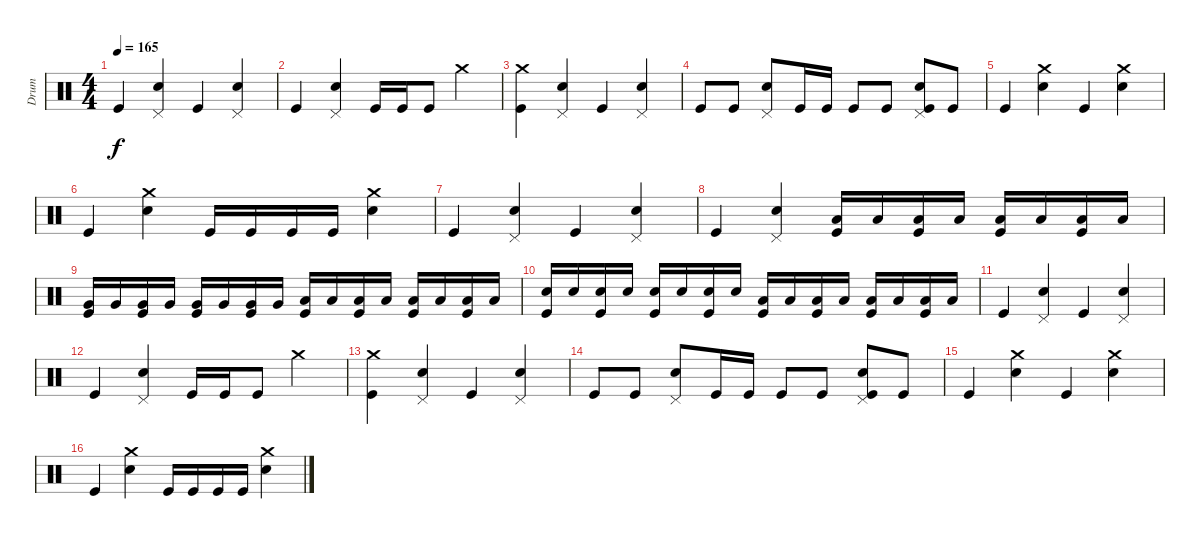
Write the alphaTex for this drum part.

\track ("Drum" "Drum") {instrument percussion}
\staff {score}
\articulation defaults
\ts (4 4)
\tempo 165
\clef neutral
\ks c "Kick (hit)".4{dy f}
("Pedal Hi-Hat (hit)" "Electric Snare (hit)").4 "Kick (hit)".4 ("Pedal Hi-Hat (hit)" "Electric Snare (hit)").4 |
"Kick (hit)".4 ("Pedal Hi-Hat (hit)" "Electric Snare (hit)").4 "Kick (hit)".16 "Kick (hit)".16 "Kick (hit)".8 "Crash medium (hit)".4 |
("Crash medium (hit)" "Kick (hit)").4 ("Pedal Hi-Hat (hit)" "Electric Snare (hit)").4 "Kick (hit)".4 ("Pedal Hi-Hat (hit)" "Electric Snare (hit)").4 |
"Kick (hit)".8 "Kick (hit)".8 ("Pedal Hi-Hat (hit)" "Electric Snare (hit)").8 "Kick (hit)".16 "Kick (hit)".16 "Kick (hit)".8 "Kick (hit)".8 ("Pedal Hi-Hat (hit)" "Electric Snare (hit)" "Kick (hit)").8 "Kick (hit)".8 |
"Kick (hit)".4 ("Crash medium (hit)" "Electric Snare (hit)").4 "Kick (hit)".4 ("Crash medium (hit)" "Electric Snare (hit)").4 |
"Kick (hit)".4 ("Crash medium (hit)" "Electric Snare (hit)").4 "Kick (hit)".16 "Kick (hit)".16 "Kick (hit)".16 "Kick (hit)".16 ("Electric Snare (hit)" "Crash medium (hit)").4 |
"Kick (hit)".4 ("Pedal Hi-Hat (hit)" "Electric Snare (hit)").4 "Kick (hit)".4 ("Pedal Hi-Hat (hit)" "Electric Snare (hit)").4 |
"Kick (hit)".4 ("Pedal Hi-Hat (hit)" "Electric Snare (hit)").4 ("Low Tom (hit)" "Kick (hit)").16 "Low Tom (hit)".16 ("Low Tom (hit)" "Kick (hit)").16 "Low Tom (hit)".16 ("Low Tom (hit)" "Kick (hit)").16 "Low Tom (hit)".16 ("Low Tom (hit)" "Kick (hit)").16 "Low Tom (hit)".16 |
("Very Low Tom (hit)" "Kick (hit)").16 "Very Low Tom (hit)".16 ("Very Low Tom (hit)" "Kick (hit)").16 "Very Low Tom (hit)".16 ("Very Low Tom (hit)" "Kick (hit)").16 "Very Low Tom (hit)".16 ("Very Low Tom (hit)" "Kick (hit)").16 "Very Low Tom (hit)".16 ("Low Tom (hit)" "Kick (hit)").16 "Low Tom (hit)".16 ("Low Tom (hit)" "Kick (hit)").16 "Low Tom (hit)".16 ("Low Tom (hit)" "Kick (hit)").16 "Low Tom (hit)".16 ("Low Tom (hit)" "Kick (hit)").16 "Low Tom (hit)".16 |
("Snare (hit) 2" "Kick (hit)").16 "Snare (hit) 2".16 ("Snare (hit) 2" "Kick (hit)").16 "Snare (hit) 2".16 ("Snare (hit) 2" "Kick (hit)").16 "Snare (hit) 2".16 ("Snare (hit) 2" "Kick (hit)").16 "Snare (hit) 2".16 ("Low Tom (hit)" "Kick (hit)").16 "Low Tom (hit)".16 ("Low Tom (hit)" "Kick (hit)").16 "Low Tom (hit)".16 ("Low Tom (hit)" "Kick (hit)").16 "Low Tom (hit)".16 ("Low Tom (hit)" "Kick (hit)").16 "Low Tom (hit)".16 |
"Kick (hit)".4 ("Pedal Hi-Hat (hit)" "Electric Snare (hit)").4 "Kick (hit)".4 ("Pedal Hi-Hat (hit)" "Electric Snare (hit)").4 |
"Kick (hit)".4 ("Pedal Hi-Hat (hit)" "Electric Snare (hit)").4 "Kick (hit)".16 "Kick (hit)".16 "Kick (hit)".8 "Crash medium (hit)".4 |
("Crash medium (hit)" "Kick (hit)").4 ("Pedal Hi-Hat (hit)" "Electric Snare (hit)").4 "Kick (hit)".4 ("Pedal Hi-Hat (hit)" "Electric Snare (hit)").4 |
"Kick (hit)".8 "Kick (hit)".8 ("Pedal Hi-Hat (hit)" "Electric Snare (hit)").8 "Kick (hit)".16 "Kick (hit)".16 "Kick (hit)".8 "Kick (hit)".8 ("Pedal Hi-Hat (hit)" "Electric Snare (hit)" "Kick (hit)").8 "Kick (hit)".8 |
"Kick (hit)".4 ("Crash medium (hit)" "Electric Snare (hit)").4 "Kick (hit)".4 ("Crash medium (hit)" "Electric Snare (hit)").4 |
"Kick (hit)".4 ("Crash medium (hit)" "Electric Snare (hit)").4 "Kick (hit)".16 "Kick (hit)".16 "Kick (hit)".16 "Kick (hit)".16 ("Electric Snare (hit)" "Crash medium (hit)").4
